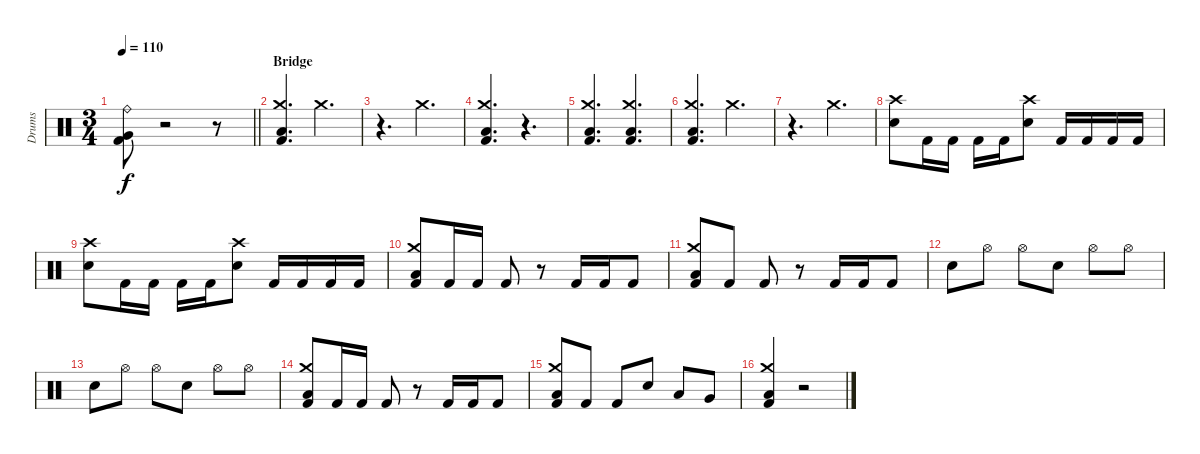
\track ("Drums" "Drums") {instrument percussion}
\staff {score}
\articulation defaults
\ts (3 4)
\tempo 110
\clef neutral
\barLineRight lightlight
\ks c
("Ride (bell)" "Very Low Tom (hit)" "Kick (hit) 2").8{dy f} r.2 r.8 |
\section ("" "Bridge")
("Crash medium (hit)" "Low Floor Tom (hit)" "Kick (hit) 2").4{d} "Crash medium (hit)".4{d} |
r.4{d} "Crash medium (hit)".4{d} |
("Crash medium (hit)" "Low Floor Tom (hit)" "Kick (hit) 2").4{d} r.4{d} |
("Crash medium (hit)" "Low Floor Tom (hit)" "Kick (hit) 2").4{d} ("Crash medium (hit)" "Low Floor Tom (hit)" "Kick (hit) 2").4{d} |
("Crash medium (hit)" "Low Floor Tom (hit)" "Kick (hit) 2").4{d} "Crash medium (hit)".4{d} |
r.4{d} "Crash medium (hit)".4{d} |
("Crash high (hit)" "Snare (hit) 2").8 "Kick (hit) 2".16 "Kick (hit) 2".16 "Kick (hit) 2".16 "Kick (hit) 2".16 ("Crash high (hit)" "Snare (hit) 2").8 "Kick (hit) 2".16 "Kick (hit) 2".16 "Kick (hit) 2".16 "Kick (hit) 2".16 |
("Crash high (hit)" "Snare (hit) 2").8 "Kick (hit) 2".16 "Kick (hit) 2".16 "Kick (hit) 2".16 "Kick (hit) 2".16 ("Crash high (hit)" "Snare (hit) 2").8 "Kick (hit) 2".16 "Kick (hit) 2".16 "Kick (hit) 2".16 "Kick (hit) 2".16 |
("Crash medium (hit)" "Low Floor Tom (hit)" "Kick (hit) 2").8 "Kick (hit) 2".16 "Kick (hit) 2".16 "Kick (hit) 2".8 r.8 "Kick (hit) 2".16 "Kick (hit) 2".16 "Kick (hit) 2".8 |
("Crash medium (hit)" "Low Floor Tom (hit)" "Kick (hit) 2").8 "Kick (hit) 2".8 "Kick (hit) 2".8 r.8 "Kick (hit) 2".16 "Kick (hit) 2".16 "Kick (hit) 2".8 |
"Snare (hit) 2".8 "Hi-Hat (open)".8 "Hi-Hat (open)".8 "Snare (hit) 2".8 "Hi-Hat (open)".8 "Hi-Hat (open)".8 |
"Snare (hit) 2".8 "Hi-Hat (open)".8 "Hi-Hat (open)".8 "Snare (hit) 2".8 "Hi-Hat (open)".8 "Hi-Hat (open)".8 |
("Crash medium (hit)" "Low Floor Tom (hit)" "Kick (hit) 2").8 "Kick (hit) 2".16 "Kick (hit) 2".16 "Kick (hit) 2".8 r.8 "Kick (hit) 2".16 "Kick (hit) 2".16 "Kick (hit) 2".8 |
("Crash medium (hit)" "Low Floor Tom (hit)" "Kick (hit) 2").8 "Kick (hit) 2".8 "Kick (hit) 2".8 "Snare (hit) 2".8 "Low Tom (hit)".8 "Very Low Tom (hit)".8 |
("Crash medium (hit)" "Low Floor Tom (hit)" "Kick (hit) 2").4 r.2
